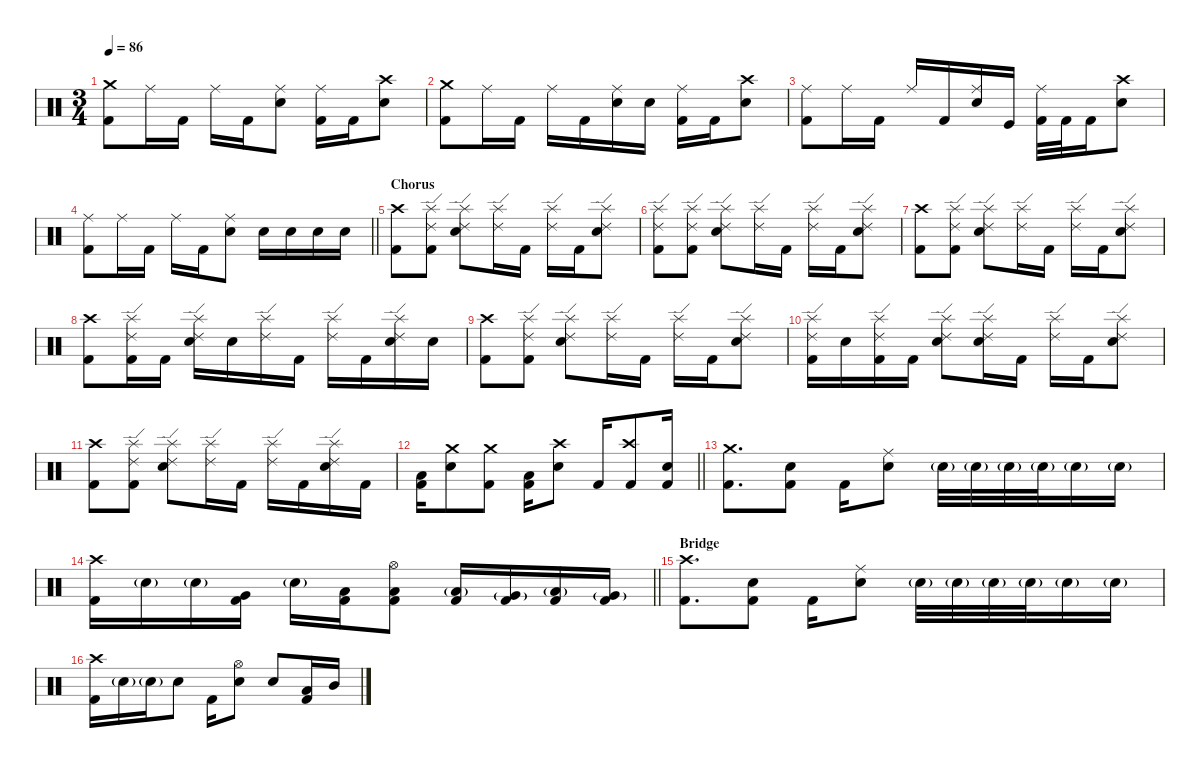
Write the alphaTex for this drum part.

\defaultSystemsLayout 4
\hideDynamics
\bracketExtendMode nobrackets
\singleTrackTrackNamePolicy hidden
\multiTrackTrackNamePolicy hidden
\otherSystemsTrackNameOrientation horizontal
\track ("Drums" "drm.") {instrument percussion}
\staff {score}
\articulation defaults
\ts (3 4)
\tempo 86
\clef neutral
\ks c
("Crash medium (hit)" "Kick (hit) 2").8{dy f beam Down} "Ride (middle)".16{beam Down} "Kick (hit) 2".16{beam Down} "Ride (middle)".16{beam Down} "Kick (hit) 2".16{beam Down} ("Ride (middle)" "Snare (hit) 2").8{beam Down} ("Ride (middle)" "Kick (hit) 2").16{beam Down} "Kick (hit) 2".16{beam Down} ("Crash high (hit)" "Snare (hit) 2").8{beam Down} |
("Crash medium (hit)" "Kick (hit) 2").8{beam Down} "Ride (middle)".16{beam Down} "Kick (hit) 2".16{beam Down} "Ride (middle)".16{beam Down} "Kick (hit) 2".16{beam Down} ("Ride (middle)" "Snare (hit) 2").16{beam Down} "Snare (hit) 2".16{beam Down} ("Ride (middle)" "Kick (hit) 2").16{beam Down} "Kick (hit) 2".16{beam Down} ("Crash high (hit)" "Snare (hit) 2").8{beam Down} |
("Ride (middle)" "Kick (hit) 2").8{beam Down} "Ride (middle)".16{beam Down} "Kick (hit) 2".16{beam Down} "Ride (middle)".16{beam Up} "Kick (hit) 2".16{beam Up} ("Ride (middle)" "Snare (hit) 2").16{beam Up} "Kick (hit)".16{beam Up} ("Ride (middle)" "Kick (hit) 2").32{beam Down} "Kick (hit) 2".32{beam Down} "Kick (hit) 2".16{beam Down} ("Crash high (hit)" "Snare (hit) 2").8{beam Down} |
\barLineRight lightlight
("Ride (middle)" "Kick (hit) 2").8{beam Down} "Ride (middle)".16{beam Down} "Kick (hit) 2".16{beam Down} "Ride (middle)".16{beam Down} "Kick (hit) 2".16{beam Down} ("Ride (middle)" "Snare (hit) 2").8{beam Down} "Snare (hit) 2".16{beam Down} "Snare (hit) 2".16{beam Down} "Snare (hit) 2".16{beam Down} "Snare (hit) 2".16{beam Down} |
\section ("" "Chorus")
("Crash high (hit)" "Kick (hit) 2").8{beam Down} ("Ride (edge) 2" "Splash (hit)" "Kick (hit) 2").8{beam Down} ("Ride (edge) 2" "Splash (hit)" "Snare (hit) 2").8{beam Down} ("Ride (edge) 2" "Splash (hit)").16{beam Down} "Kick (hit) 2".16{beam Down} ("Ride (edge) 2" "Splash (hit)").16{beam Down} "Kick (hit) 2".16{beam Down} ("Ride (edge) 2" "Splash (hit)" "Snare (hit) 2").8{beam Down} |
("Ride (edge) 2" "Splash (hit)" "Kick (hit) 2").8{beam Down} ("Ride (edge) 2" "Splash (hit)" "Kick (hit) 2").8{beam Down} ("Ride (edge) 2" "Splash (hit)" "Snare (hit) 2").8{beam Down} ("Ride (edge) 2" "Splash (hit)").16{beam Down} "Kick (hit) 2".16{beam Down} ("Ride (edge) 2" "Splash (hit)").16{beam Down} "Kick (hit) 2".16{beam Down} ("Ride (edge) 2" "Splash (hit)" "Snare (hit) 2").8{beam Down} |
("Crash high (hit)" "Kick (hit) 2").8{beam Down} ("Ride (edge) 2" "Splash (hit)" "Kick (hit) 2").8{beam Down} ("Ride (edge) 2" "Splash (hit)" "Snare (hit) 2").8{beam Down} ("Ride (edge) 2" "Splash (hit)").16{beam Down} "Kick (hit) 2".16{beam Down} ("Ride (edge) 2" "Splash (hit)").16{beam Down} "Kick (hit) 2".16{beam Down} ("Ride (edge) 2" "Splash (hit)" "Snare (hit) 2").8{beam Down} |
("Crash high (hit)" "Kick (hit) 2").8{beam Down} ("Ride (edge) 2" "Splash (hit)" "Kick (hit) 2").16{beam Down} "Kick (hit) 2".16{beam Down} ("Ride (edge) 2" "Splash (hit)" "Snare (hit) 2").16{beam Down} "Snare (hit) 2".16{beam Down} ("Ride (edge) 2" "Splash (hit)").16{beam Down} "Kick (hit) 2".16{beam Down} ("Ride (edge) 2" "Splash (hit)").16{beam Down} "Kick (hit) 2".16{beam Down} ("Ride (edge) 2" "Splash (hit)" "Snare (hit) 2").16{beam Down} "Snare (hit) 2".16{beam Down} |
("Crash high (hit)" "Kick (hit) 2").8{beam Down} ("Ride (edge) 2" "Splash (hit)" "Kick (hit) 2").8{beam Down} ("Ride (edge) 2" "Splash (hit)" "Snare (hit) 2").8{beam Down} ("Ride (edge) 2" "Splash (hit)").16{beam Down} "Kick (hit) 2".16{beam Down} ("Ride (edge) 2" "Splash (hit)").16{beam Down} "Kick (hit) 2".16{beam Down} ("Ride (edge) 2" "Splash (hit)" "Snare (hit) 2").8{beam Down} |
("Ride (edge) 2" "Splash (hit)" "Kick (hit) 2").16{beam Down} "Snare (hit) 2".16{beam Down} ("Ride (edge) 2" "Splash (hit)" "Kick (hit) 2").16{beam Down} "Kick (hit) 2".16{beam Down} ("Ride (edge) 2" "Splash (hit)" "Snare (hit) 2").8{beam Down} ("Ride (edge) 2" "Splash (hit)" "Snare (hit) 2").16{beam Down} "Kick (hit) 2".16{beam Down} ("Ride (edge) 2" "Splash (hit)").16{beam Down} "Kick (hit) 2".16{beam Down} ("Ride (edge) 2" "Splash (hit)" "Snare (hit) 2").8{beam Down} |
("Crash high (hit)" "Kick (hit) 2").8{beam Down} ("Ride (edge) 2" "Splash (hit)" "Kick (hit) 2").8{beam Down} ("Ride (edge) 2" "Splash (hit)" "Snare (hit) 2").8{beam Down} ("Ride (edge) 2" "Splash (hit)").16{beam Down} "Kick (hit) 2".16{beam Down} ("Ride (edge) 2" "Splash (hit)").16{beam Down} "Kick (hit) 2".16{beam Down} ("Ride (edge) 2" "Splash (hit)" "Snare (hit) 2").16{beam Down} "Kick (hit) 2".16{beam Down} |
\barLineRight lightlight
("Low Floor Tom (hit)" "Kick (hit) 2").16{beam Down} ("Crash medium (hit)" "Snare (hit) 2").8{beam Down} ("Crash medium (hit)" "Kick (hit) 2").8{beam Down} ("Low Floor Tom (hit)" "Kick (hit) 2").16{beam Down} ("Crash high (hit)" "Snare (hit) 2").8{beam Down} "Kick (hit) 2".16{beam Up} ("Crash high (hit)" "Kick (hit) 2").8{beam Up} ("Snare (hit) 2" "Kick (hit) 2").16{beam Up} |
("Crash medium (hit)" "Kick (hit) 2").8{d beam Down} ("Snare (hit) 2" "Kick (hit) 2").8{beam Down} "Kick (hit) 2".16{beam Down} ("Ride (middle)" "Snare (hit) 2").8{beam Down} "Snare (hit) 2"{g}.32{dy mf beam Down} "Snare (hit) 2"{g}.32{beam Down} "Snare (hit) 2"{g}.32{beam Down} "Snare (hit) 2"{g}.32{beam Down} "Snare (hit) 2"{g}.16{beam Down} "Snare (hit) 2"{g}.16{beam Down} |
\barLineRight lightlight
("Crash high (hit)" "Kick (hit) 2").16{dy f beam Down} "Snare (hit) 2"{g}.16{dy mf beam Down} "Snare (hit) 2"{g}.16{beam Down} ("Very Low Tom (hit)" "Kick (hit) 2").16{dy f beam Down} "Snare (hit) 2"{g}.16{dy mf beam Down} ("Low Floor Tom (hit)" "Kick (hit) 2").16{dy f beam Down} ("Hi-Hat (open)" "Low Tom (hit)" "Kick (hit) 2").8{beam Down} ("Low Tom (hit)"{g} "Kick (hit) 2").16{beam Up} ("Very Low Tom (hit)"{g} "Kick (hit) 2").16{beam Up} ("Low Floor Tom (hit)"{g} "Kick (hit) 2").16{beam Up} ("Very Low Tom (hit)"{g} "Kick (hit) 2").16{beam Up} |
\section ("" "Bridge")
("Crash high (hit)" "Kick (hit) 2").8{d beam Down} ("Snare (hit) 2" "Kick (hit) 2").8{beam Down} "Kick (hit) 2".16{beam Down} ("Ride (middle)" "Snare (hit) 2").8{beam Down} "Snare (hit) 2"{g}.32{dy mf beam Down} "Snare (hit) 2"{g}.32{beam Down} "Snare (hit) 2"{g}.32{beam Down} "Snare (hit) 2"{g}.32{beam Down} "Snare (hit) 2"{g}.16{beam Down} "Snare (hit) 2"{g}.16{beam Down} |
("Crash high (hit)" "Kick (hit) 2").16{dy f beam Down} "Snare (hit) 2"{g}.16{dy mf beam Down} "Snare (hit) 2"{g}.16{beam Down} "Snare (hit) 2".8{dy f beam Down} "Kick (hit) 2".16{beam Down} ("Hi-Hat (open)" "Snare (hit) 2").8{beam Down} "Snare (hit) 2".8{beam Up} ("Low Tom (hit)" "Kick (hit) 2").16{beam Up} "Mid Tom (hit)".16{beam Up}
